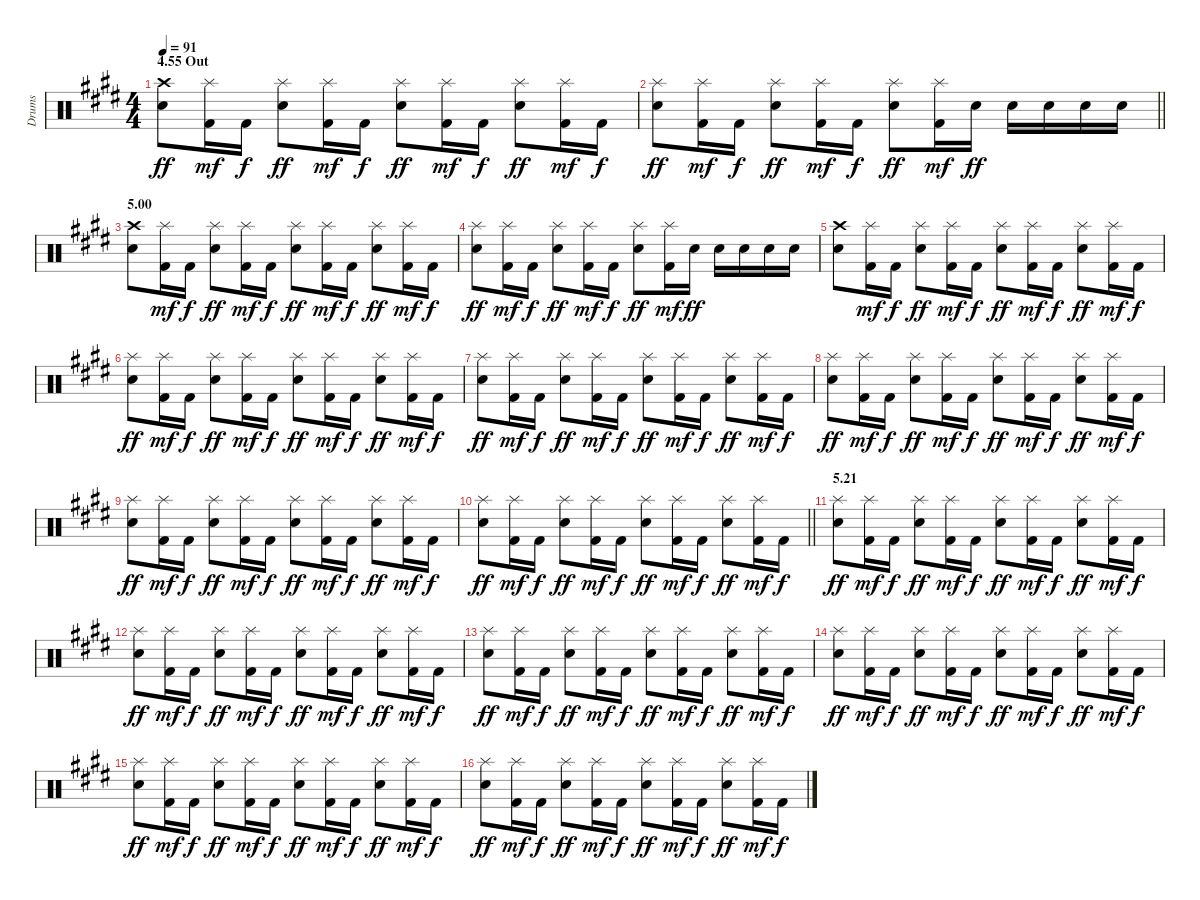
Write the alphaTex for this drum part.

\track ("Drums" "Drums") {instrument percussion}
\staff {score}
\articulation defaults
\ts (4 4)
\section ("" "4.55 Out")
\tempo 91
\clef neutral
\ks e
("Crash high (hit)" "Snare (hit) 2").8{dy ff} ("Splash (hit)" "Kick (hit) 2").16{dy mf} "Kick (hit) 2".16{dy f} ("Splash (hit)" "Snare (hit) 2").8{dy ff} ("Splash (hit)" "Kick (hit) 2").16{dy mf} "Kick (hit) 2".16{dy f} ("Splash (hit)" "Snare (hit) 2").8{dy ff} ("Splash (hit)" "Kick (hit) 2").16{dy mf} "Kick (hit) 2".16{dy f} ("Splash (hit)" "Snare (hit) 2").8{dy ff} ("Splash (hit)" "Kick (hit) 2").16{dy mf} "Kick (hit) 2".16{dy f} |
\barLineRight lightlight
("Splash (hit)" "Snare (hit) 2").8{dy ff} ("Splash (hit)" "Kick (hit) 2").16{dy mf} "Kick (hit) 2".16{dy f} ("Splash (hit)" "Snare (hit) 2").8{dy ff} ("Splash (hit)" "Kick (hit) 2").16{dy mf} "Kick (hit) 2".16{dy f} ("Splash (hit)" "Snare (hit) 2").8{dy ff} ("Splash (hit)" "Kick (hit) 2").16{dy mf} "Snare (hit) 2".16{dy ff} "Snare (hit) 2".16 "Snare (hit) 2".16 "Snare (hit) 2".16 "Snare (hit) 2".16 |
\section ("" "5.00")
("Crash high (hit)" "Snare (hit) 2").8 ("Splash (hit)" "Kick (hit) 2").16{dy mf} "Kick (hit) 2".16{dy f} ("Splash (hit)" "Snare (hit) 2").8{dy ff} ("Splash (hit)" "Kick (hit) 2").16{dy mf} "Kick (hit) 2".16{dy f} ("Splash (hit)" "Snare (hit) 2").8{dy ff} ("Splash (hit)" "Kick (hit) 2").16{dy mf} "Kick (hit) 2".16{dy f} ("Splash (hit)" "Snare (hit) 2").8{dy ff} ("Splash (hit)" "Kick (hit) 2").16{dy mf} "Kick (hit) 2".16{dy f} |
("Splash (hit)" "Snare (hit) 2").8{dy ff} ("Splash (hit)" "Kick (hit) 2").16{dy mf} "Kick (hit) 2".16{dy f} ("Splash (hit)" "Snare (hit) 2").8{dy ff} ("Splash (hit)" "Kick (hit) 2").16{dy mf} "Kick (hit) 2".16{dy f} ("Splash (hit)" "Snare (hit) 2").8{dy ff} ("Splash (hit)" "Kick (hit) 2").16{dy mf} "Snare (hit) 2".16{dy ff} "Snare (hit) 2".16 "Snare (hit) 2".16 "Snare (hit) 2".16 "Snare (hit) 2".16 |
("Crash high (hit)" "Snare (hit) 2").8 ("Splash (hit)" "Kick (hit) 2").16{dy mf} "Kick (hit) 2".16{dy f} ("Splash (hit)" "Snare (hit) 2").8{dy ff} ("Splash (hit)" "Kick (hit) 2").16{dy mf} "Kick (hit) 2".16{dy f} ("Splash (hit)" "Snare (hit) 2").8{dy ff} ("Splash (hit)" "Kick (hit) 2").16{dy mf} "Kick (hit) 2".16{dy f} ("Splash (hit)" "Snare (hit) 2").8{dy ff} ("Splash (hit)" "Kick (hit) 2").16{dy mf} "Kick (hit) 2".16{dy f} |
("Splash (hit)" "Snare (hit) 2").8{dy ff} ("Splash (hit)" "Kick (hit) 2").16{dy mf} "Kick (hit) 2".16{dy f} ("Splash (hit)" "Snare (hit) 2").8{dy ff} ("Splash (hit)" "Kick (hit) 2").16{dy mf} "Kick (hit) 2".16{dy f} ("Splash (hit)" "Snare (hit) 2").8{dy ff} ("Splash (hit)" "Kick (hit) 2").16{dy mf} "Kick (hit) 2".16{dy f} ("Splash (hit)" "Snare (hit) 2").8{dy ff} ("Splash (hit)" "Kick (hit) 2").16{dy mf} "Kick (hit) 2".16{dy f} |
("Splash (hit)" "Snare (hit) 2").8{dy ff} ("Splash (hit)" "Kick (hit) 2").16{dy mf} "Kick (hit) 2".16{dy f} ("Splash (hit)" "Snare (hit) 2").8{dy ff} ("Splash (hit)" "Kick (hit) 2").16{dy mf} "Kick (hit) 2".16{dy f} ("Splash (hit)" "Snare (hit) 2").8{dy ff} ("Splash (hit)" "Kick (hit) 2").16{dy mf} "Kick (hit) 2".16{dy f} ("Splash (hit)" "Snare (hit) 2").8{dy ff} ("Splash (hit)" "Kick (hit) 2").16{dy mf} "Kick (hit) 2".16{dy f} |
("Splash (hit)" "Snare (hit) 2").8{dy ff} ("Splash (hit)" "Kick (hit) 2").16{dy mf} "Kick (hit) 2".16{dy f} ("Splash (hit)" "Snare (hit) 2").8{dy ff} ("Splash (hit)" "Kick (hit) 2").16{dy mf} "Kick (hit) 2".16{dy f} ("Splash (hit)" "Snare (hit) 2").8{dy ff} ("Splash (hit)" "Kick (hit) 2").16{dy mf} "Kick (hit) 2".16{dy f} ("Splash (hit)" "Snare (hit) 2").8{dy ff} ("Splash (hit)" "Kick (hit) 2").16{dy mf} "Kick (hit) 2".16{dy f} |
("Splash (hit)" "Snare (hit) 2").8{dy ff} ("Splash (hit)" "Kick (hit) 2").16{dy mf} "Kick (hit) 2".16{dy f} ("Splash (hit)" "Snare (hit) 2").8{dy ff} ("Splash (hit)" "Kick (hit) 2").16{dy mf} "Kick (hit) 2".16{dy f} ("Splash (hit)" "Snare (hit) 2").8{dy ff} ("Splash (hit)" "Kick (hit) 2").16{dy mf} "Kick (hit) 2".16{dy f} ("Splash (hit)" "Snare (hit) 2").8{dy ff} ("Splash (hit)" "Kick (hit) 2").16{dy mf} "Kick (hit) 2".16{dy f} |
\barLineRight lightlight
("Splash (hit)" "Snare (hit) 2").8{dy ff} ("Splash (hit)" "Kick (hit) 2").16{dy mf} "Kick (hit) 2".16{dy f} ("Splash (hit)" "Snare (hit) 2").8{dy ff} ("Splash (hit)" "Kick (hit) 2").16{dy mf} "Kick (hit) 2".16{dy f} ("Splash (hit)" "Snare (hit) 2").8{dy ff} ("Splash (hit)" "Kick (hit) 2").16{dy mf} "Kick (hit) 2".16{dy f} ("Splash (hit)" "Snare (hit) 2").8{dy ff} ("Splash (hit)" "Kick (hit) 2").16{dy mf} "Kick (hit) 2".16{dy f} |
\section ("" "5.21")
("Splash (hit)" "Snare (hit) 2").8{dy ff} ("Splash (hit)" "Kick (hit) 2").16{dy mf} "Kick (hit) 2".16{dy f} ("Splash (hit)" "Snare (hit) 2").8{dy ff} ("Splash (hit)" "Kick (hit) 2").16{dy mf} "Kick (hit) 2".16{dy f} ("Splash (hit)" "Snare (hit) 2").8{dy ff} ("Splash (hit)" "Kick (hit) 2").16{dy mf} "Kick (hit) 2".16{dy f} ("Splash (hit)" "Snare (hit) 2").8{dy ff} ("Splash (hit)" "Kick (hit) 2").16{dy mf} "Kick (hit) 2".16{dy f} |
("Splash (hit)" "Snare (hit) 2").8{dy ff} ("Splash (hit)" "Kick (hit) 2").16{dy mf} "Kick (hit) 2".16{dy f} ("Splash (hit)" "Snare (hit) 2").8{dy ff} ("Splash (hit)" "Kick (hit) 2").16{dy mf} "Kick (hit) 2".16{dy f} ("Splash (hit)" "Snare (hit) 2").8{dy ff} ("Splash (hit)" "Kick (hit) 2").16{dy mf} "Kick (hit) 2".16{dy f} ("Splash (hit)" "Snare (hit) 2").8{dy ff} ("Splash (hit)" "Kick (hit) 2").16{dy mf} "Kick (hit) 2".16{dy f} |
("Splash (hit)" "Snare (hit) 2").8{dy ff} ("Splash (hit)" "Kick (hit) 2").16{dy mf} "Kick (hit) 2".16{dy f} ("Splash (hit)" "Snare (hit) 2").8{dy ff} ("Splash (hit)" "Kick (hit) 2").16{dy mf} "Kick (hit) 2".16{dy f} ("Splash (hit)" "Snare (hit) 2").8{dy ff} ("Splash (hit)" "Kick (hit) 2").16{dy mf} "Kick (hit) 2".16{dy f} ("Splash (hit)" "Snare (hit) 2").8{dy ff} ("Splash (hit)" "Kick (hit) 2").16{dy mf} "Kick (hit) 2".16{dy f} |
("Splash (hit)" "Snare (hit) 2").8{dy ff} ("Splash (hit)" "Kick (hit) 2").16{dy mf} "Kick (hit) 2".16{dy f} ("Splash (hit)" "Snare (hit) 2").8{dy ff} ("Splash (hit)" "Kick (hit) 2").16{dy mf} "Kick (hit) 2".16{dy f} ("Splash (hit)" "Snare (hit) 2").8{dy ff} ("Splash (hit)" "Kick (hit) 2").16{dy mf} "Kick (hit) 2".16{dy f} ("Splash (hit)" "Snare (hit) 2").8{dy ff} ("Splash (hit)" "Kick (hit) 2").16{dy mf} "Kick (hit) 2".16{dy f} |
("Splash (hit)" "Snare (hit) 2").8{dy ff} ("Splash (hit)" "Kick (hit) 2").16{dy mf} "Kick (hit) 2".16{dy f} ("Splash (hit)" "Snare (hit) 2").8{dy ff} ("Splash (hit)" "Kick (hit) 2").16{dy mf} "Kick (hit) 2".16{dy f} ("Splash (hit)" "Snare (hit) 2").8{dy ff} ("Splash (hit)" "Kick (hit) 2").16{dy mf} "Kick (hit) 2".16{dy f} ("Splash (hit)" "Snare (hit) 2").8{dy ff} ("Splash (hit)" "Kick (hit) 2").16{dy mf} "Kick (hit) 2".16{dy f} |
("Splash (hit)" "Snare (hit) 2").8{dy ff} ("Splash (hit)" "Kick (hit) 2").16{dy mf} "Kick (hit) 2".16{dy f} ("Splash (hit)" "Snare (hit) 2").8{dy ff} ("Splash (hit)" "Kick (hit) 2").16{dy mf} "Kick (hit) 2".16{dy f} ("Splash (hit)" "Snare (hit) 2").8{dy ff} ("Splash (hit)" "Kick (hit) 2").16{dy mf} "Kick (hit) 2".16{dy f} ("Splash (hit)" "Snare (hit) 2").8{dy ff} ("Splash (hit)" "Kick (hit) 2").16{dy mf} "Kick (hit) 2".16{dy f}
